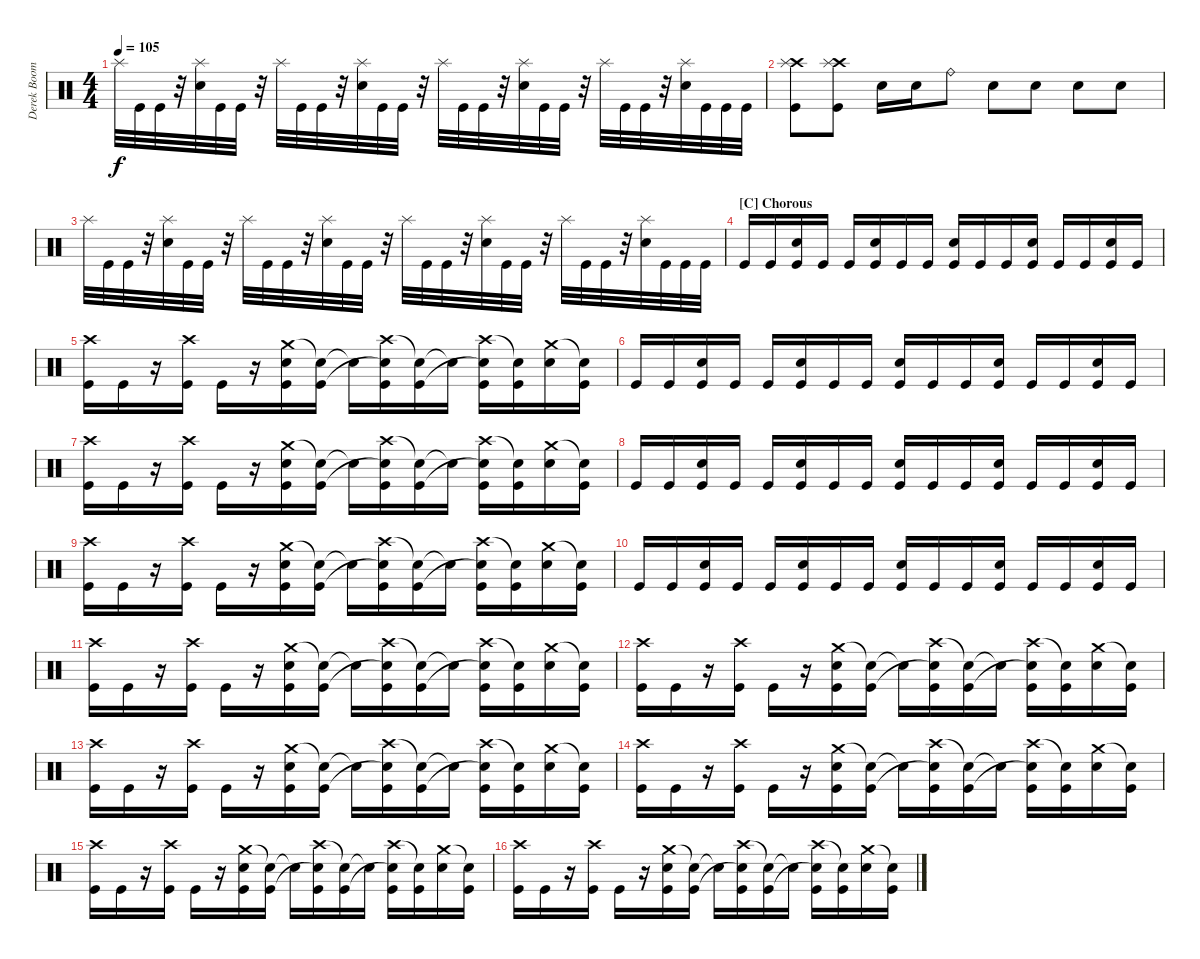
\track ("Derek Boom" "Derek Boom") {instrument percussion}
\staff {score}
\articulation defaults
\ts (4 4)
\tempo 105
\clef neutral
\ks c "Splash (hit)".32{dy f} "Kick (hit)".32 "Kick (hit)".32
r.32 ("Splash (hit)" "Electric Snare (hit)").32 "Kick (hit)".32 "Kick (hit)".32 r.32 "Splash (hit)".32 "Kick (hit)".32 "Kick (hit)".32 r.32 ("Splash (hit)" "Electric Snare (hit)").32 "Kick (hit)".32 "Kick (hit)".32 r.32 "Splash (hit)".32 "Kick (hit)".32 "Kick (hit)".32 r.32 ("Splash (hit)" "Electric Snare (hit)").32 "Kick (hit)".32 "Kick (hit)".32 r.32 "Splash (hit)".32 "Kick (hit)".32 "Kick (hit)".32 r.32 ("Splash (hit)" "Electric Snare (hit)").32 "Kick (hit)".32 "Kick (hit)".32 "Kick (hit)".32 |
("Crash high (hit)" "Splash (hit)" "Kick (hit)").8 ("Crash high (hit)" "Splash (hit)" "Kick (hit)").8 "Electric Snare (hit)".16 "Electric Snare (hit)".16 "Ride (bell)".8 "Electric Snare (hit)".8 "Electric Snare (hit)".8 "Electric Snare (hit)".8 "Electric Snare (hit)".8 |
"Splash (hit)".32 "Kick (hit)".32 "Kick (hit)".32 r.32 ("Splash (hit)" "Electric Snare (hit)").32 "Kick (hit)".32 "Kick (hit)".32 r.32 "Splash (hit)".32 "Kick (hit)".32 "Kick (hit)".32 r.32 ("Splash (hit)" "Electric Snare (hit)").32 "Kick (hit)".32 "Kick (hit)".32 r.32 "Splash (hit)".32 "Kick (hit)".32 "Kick (hit)".32 r.32 ("Splash (hit)" "Electric Snare (hit)").32 "Kick (hit)".32 "Kick (hit)".32 r.32 "Splash (hit)".32 "Kick (hit)".32 "Kick (hit)".32 r.32 ("Splash (hit)" "Electric Snare (hit)").32 "Kick (hit)".32 "Kick (hit)".32 "Kick (hit)".32 |
\section ("" "[C] Chorous")
"Kick (hit)".16 "Kick (hit)".16 ("Electric Snare (hit)" "Kick (hit)").16 "Kick (hit)".16 "Kick (hit)".16 ("Electric Snare (hit)" "Kick (hit)").16 "Kick (hit)".16 "Kick (hit)".16 ("Electric Snare (hit)" "Kick (hit)").16 "Kick (hit)".16 "Kick (hit)".16 ("Electric Snare (hit)" "Kick (hit)").16 "Kick (hit)".16 "Kick (hit)".16 ("Electric Snare (hit)" "Kick (hit)").16 "Kick (hit)".16 |
("Crash high (hit)" "Kick (hit)").16 "Kick (hit)".16 r.16 ("Crash high (hit)" "Kick (hit)").16 "Kick (hit)".16 r.16 ("Crash medium (hit)" "Electric Snare (hit)" "Kick (hit)").16 ("Snare (hit)"{t} "Kick (hit)").16 "Snare (hit)"{t}.16 ("Crash high (hit)" "Electric Snare (hit)"{t} "Kick (hit)").16 ("Snare (hit)"{t} "Kick (hit)").16 "Snare (hit)"{t}.16 ("Crash high (hit)" "Electric Snare (hit)"{t} "Kick (hit)").16 ("Snare (hit)"{t} "Kick (hit)").16 ("Crash medium (hit)" "Electric Snare (hit)").16 ("Snare (hit)"{t} "Kick (hit)").16 |
"Kick (hit)".16 "Kick (hit)".16 ("Electric Snare (hit)" "Kick (hit)").16 "Kick (hit)".16 "Kick (hit)".16 ("Electric Snare (hit)" "Kick (hit)").16 "Kick (hit)".16 "Kick (hit)".16 ("Electric Snare (hit)" "Kick (hit)").16 "Kick (hit)".16 "Kick (hit)".16 ("Electric Snare (hit)" "Kick (hit)").16 "Kick (hit)".16 "Kick (hit)".16 ("Electric Snare (hit)" "Kick (hit)").16 "Kick (hit)".16 |
("Crash high (hit)" "Kick (hit)").16 "Kick (hit)".16 r.16 ("Crash high (hit)" "Kick (hit)").16 "Kick (hit)".16 r.16 ("Crash medium (hit)" "Electric Snare (hit)" "Kick (hit)").16 ("Snare (hit)"{t} "Kick (hit)").16 "Snare (hit)"{t}.16 ("Crash high (hit)" "Electric Snare (hit)"{t} "Kick (hit)").16 ("Snare (hit)"{t} "Kick (hit)").16 "Snare (hit)"{t}.16 ("Crash high (hit)" "Electric Snare (hit)"{t} "Kick (hit)").16 ("Snare (hit)"{t} "Kick (hit)").16 ("Crash medium (hit)" "Electric Snare (hit)").16 ("Snare (hit)"{t} "Kick (hit)").16 |
"Kick (hit)".16 "Kick (hit)".16 ("Electric Snare (hit)" "Kick (hit)").16 "Kick (hit)".16 "Kick (hit)".16 ("Electric Snare (hit)" "Kick (hit)").16 "Kick (hit)".16 "Kick (hit)".16 ("Electric Snare (hit)" "Kick (hit)").16 "Kick (hit)".16 "Kick (hit)".16 ("Electric Snare (hit)" "Kick (hit)").16 "Kick (hit)".16 "Kick (hit)".16 ("Electric Snare (hit)" "Kick (hit)").16 "Kick (hit)".16 |
("Crash high (hit)" "Kick (hit)").16 "Kick (hit)".16 r.16 ("Crash high (hit)" "Kick (hit)").16 "Kick (hit)".16 r.16 ("Crash medium (hit)" "Electric Snare (hit)" "Kick (hit)").16 ("Snare (hit)"{t} "Kick (hit)").16 "Snare (hit)"{t}.16 ("Crash high (hit)" "Electric Snare (hit)"{t} "Kick (hit)").16 ("Snare (hit)"{t} "Kick (hit)").16 "Snare (hit)"{t}.16 ("Crash high (hit)" "Electric Snare (hit)"{t} "Kick (hit)").16 ("Snare (hit)"{t} "Kick (hit)").16 ("Crash medium (hit)" "Electric Snare (hit)").16 ("Snare (hit)"{t} "Kick (hit)").16 |
"Kick (hit)".16 "Kick (hit)".16 ("Electric Snare (hit)" "Kick (hit)").16 "Kick (hit)".16 "Kick (hit)".16 ("Electric Snare (hit)" "Kick (hit)").16 "Kick (hit)".16 "Kick (hit)".16 ("Electric Snare (hit)" "Kick (hit)").16 "Kick (hit)".16 "Kick (hit)".16 ("Electric Snare (hit)" "Kick (hit)").16 "Kick (hit)".16 "Kick (hit)".16 ("Electric Snare (hit)" "Kick (hit)").16 "Kick (hit)".16 |
("Crash high (hit)" "Kick (hit)").16 "Kick (hit)".16 r.16 ("Crash high (hit)" "Kick (hit)").16 "Kick (hit)".16 r.16 ("Crash medium (hit)" "Electric Snare (hit)" "Kick (hit)").16 ("Snare (hit)"{t} "Kick (hit)").16 "Snare (hit)"{t}.16 ("Crash high (hit)" "Electric Snare (hit)"{t} "Kick (hit)").16 ("Snare (hit)"{t} "Kick (hit)").16 "Snare (hit)"{t}.16 ("Crash high (hit)" "Electric Snare (hit)"{t} "Kick (hit)").16 ("Snare (hit)"{t} "Kick (hit)").16 ("Crash medium (hit)" "Electric Snare (hit)").16 ("Snare (hit)"{t} "Kick (hit)").16 |
("Crash high (hit)" "Kick (hit)").16 "Kick (hit)".16 r.16 ("Crash high (hit)" "Kick (hit)").16 "Kick (hit)".16 r.16 ("Crash medium (hit)" "Electric Snare (hit)" "Kick (hit)").16 ("Snare (hit)"{t} "Kick (hit)").16 "Snare (hit)"{t}.16 ("Crash high (hit)" "Electric Snare (hit)"{t} "Kick (hit)").16 ("Snare (hit)"{t} "Kick (hit)").16 "Snare (hit)"{t}.16 ("Crash high (hit)" "Electric Snare (hit)"{t} "Kick (hit)").16 ("Snare (hit)"{t} "Kick (hit)").16 ("Crash medium (hit)" "Electric Snare (hit)").16 ("Snare (hit)"{t} "Kick (hit)").16 |
("Crash high (hit)" "Kick (hit)").16 "Kick (hit)".16 r.16 ("Crash high (hit)" "Kick (hit)").16 "Kick (hit)".16 r.16 ("Crash medium (hit)" "Electric Snare (hit)" "Kick (hit)").16 ("Snare (hit)"{t} "Kick (hit)").16 "Snare (hit)"{t}.16 ("Crash high (hit)" "Electric Snare (hit)"{t} "Kick (hit)").16 ("Snare (hit)"{t} "Kick (hit)").16 "Snare (hit)"{t}.16 ("Crash high (hit)" "Electric Snare (hit)"{t} "Kick (hit)").16 ("Snare (hit)"{t} "Kick (hit)").16 ("Crash medium (hit)" "Electric Snare (hit)").16 ("Snare (hit)"{t} "Kick (hit)").16 |
("Crash high (hit)" "Kick (hit)").16 "Kick (hit)".16 r.16 ("Crash high (hit)" "Kick (hit)").16 "Kick (hit)".16 r.16 ("Crash medium (hit)" "Electric Snare (hit)" "Kick (hit)").16 ("Snare (hit)"{t} "Kick (hit)").16 "Snare (hit)"{t}.16 ("Crash high (hit)" "Electric Snare (hit)"{t} "Kick (hit)").16 ("Snare (hit)"{t} "Kick (hit)").16 "Snare (hit)"{t}.16 ("Crash high (hit)" "Electric Snare (hit)"{t} "Kick (hit)").16 ("Snare (hit)"{t} "Kick (hit)").16 ("Crash medium (hit)" "Electric Snare (hit)").16 ("Snare (hit)"{t} "Kick (hit)").16 |
("Crash high (hit)" "Kick (hit)").16 "Kick (hit)".16 r.16 ("Crash high (hit)" "Kick (hit)").16 "Kick (hit)".16 r.16 ("Crash medium (hit)" "Electric Snare (hit)" "Kick (hit)").16 ("Snare (hit)"{t} "Kick (hit)").16 "Snare (hit)"{t}.16 ("Crash high (hit)" "Electric Snare (hit)"{t} "Kick (hit)").16 ("Snare (hit)"{t} "Kick (hit)").16 "Snare (hit)"{t}.16 ("Crash high (hit)" "Electric Snare (hit)"{t} "Kick (hit)").16 ("Snare (hit)"{t} "Kick (hit)").16 ("Crash medium (hit)" "Electric Snare (hit)").16 ("Snare (hit)"{t} "Kick (hit)").16 |
("Crash high (hit)" "Kick (hit)").16 "Kick (hit)".16 r.16 ("Crash high (hit)" "Kick (hit)").16 "Kick (hit)".16 r.16 ("Crash medium (hit)" "Electric Snare (hit)" "Kick (hit)").16 ("Snare (hit)"{t} "Kick (hit)").16 "Snare (hit)"{t}.16 ("Crash high (hit)" "Electric Snare (hit)"{t} "Kick (hit)").16 ("Snare (hit)"{t} "Kick (hit)").16 "Snare (hit)"{t}.16 ("Crash high (hit)" "Electric Snare (hit)"{t} "Kick (hit)").16 ("Snare (hit)"{t} "Kick (hit)").16 ("Crash medium (hit)" "Electric Snare (hit)").16 ("Snare (hit)"{t} "Kick (hit)").16
